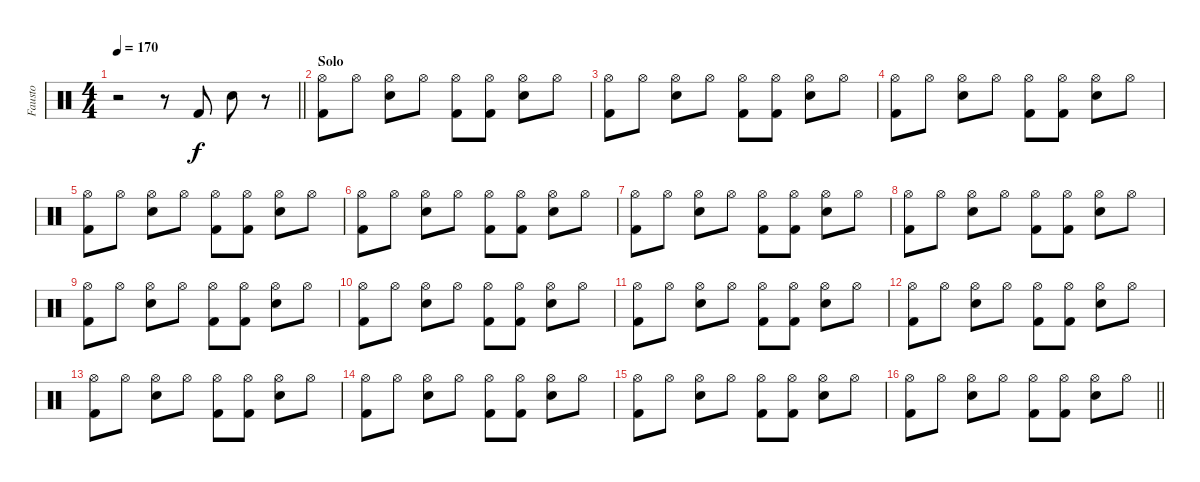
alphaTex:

\track ("Fausto" "Fausto") {instrument percussion}
\staff {score}
\articulation defaults
\ts (4 4)
\tempo 170
\clef neutral
\barLineRight lightlight
\ks c
r.2{dy f} r.8 "Kick (hit) 2".8 "Snare (hit) 2".8 r.8 |
\section ("" "Solo")
("Hi-Hat (open)" "Kick (hit) 2").8 "Hi-Hat (open)".8 ("Hi-Hat (open)" "Snare (hit) 2").8 "Hi-Hat (open)".8 ("Hi-Hat (open)" "Kick (hit) 2").8 ("Hi-Hat (open)" "Kick (hit) 2").8 ("Hi-Hat (open)" "Snare (hit) 2").8 "Hi-Hat (open)".8 |
("Hi-Hat (open)" "Kick (hit) 2").8 "Hi-Hat (open)".8 ("Hi-Hat (open)" "Snare (hit) 2").8 "Hi-Hat (open)".8 ("Hi-Hat (open)" "Kick (hit) 2").8 ("Hi-Hat (open)" "Kick (hit) 2").8 ("Hi-Hat (open)" "Snare (hit) 2").8 "Hi-Hat (open)".8 |
("Hi-Hat (open)" "Kick (hit) 2").8 "Hi-Hat (open)".8 ("Hi-Hat (open)" "Snare (hit) 2").8 "Hi-Hat (open)".8 ("Hi-Hat (open)" "Kick (hit) 2").8 ("Hi-Hat (open)" "Kick (hit) 2").8 ("Hi-Hat (open)" "Snare (hit) 2").8 "Hi-Hat (open)".8 |
("Hi-Hat (open)" "Kick (hit) 2").8 "Hi-Hat (open)".8 ("Hi-Hat (open)" "Snare (hit) 2").8 "Hi-Hat (open)".8 ("Hi-Hat (open)" "Kick (hit) 2").8 ("Hi-Hat (open)" "Kick (hit) 2").8 ("Hi-Hat (open)" "Snare (hit) 2").8 "Hi-Hat (open)".8 |
("Hi-Hat (open)" "Kick (hit) 2").8 "Hi-Hat (open)".8 ("Hi-Hat (open)" "Snare (hit) 2").8 "Hi-Hat (open)".8 ("Hi-Hat (open)" "Kick (hit) 2").8 ("Hi-Hat (open)" "Kick (hit) 2").8 ("Hi-Hat (open)" "Snare (hit) 2").8 "Hi-Hat (open)".8 |
("Hi-Hat (open)" "Kick (hit) 2").8 "Hi-Hat (open)".8 ("Hi-Hat (open)" "Snare (hit) 2").8 "Hi-Hat (open)".8 ("Hi-Hat (open)" "Kick (hit) 2").8 ("Hi-Hat (open)" "Kick (hit) 2").8 ("Hi-Hat (open)" "Snare (hit) 2").8 "Hi-Hat (open)".8 |
("Hi-Hat (open)" "Kick (hit) 2").8 "Hi-Hat (open)".8 ("Hi-Hat (open)" "Snare (hit) 2").8 "Hi-Hat (open)".8 ("Hi-Hat (open)" "Kick (hit) 2").8 ("Hi-Hat (open)" "Kick (hit) 2").8 ("Hi-Hat (open)" "Snare (hit) 2").8 "Hi-Hat (open)".8 |
("Hi-Hat (open)" "Kick (hit) 2").8 "Hi-Hat (open)".8 ("Hi-Hat (open)" "Snare (hit) 2").8 "Hi-Hat (open)".8 ("Hi-Hat (open)" "Kick (hit) 2").8 ("Hi-Hat (open)" "Kick (hit) 2").8 ("Hi-Hat (open)" "Snare (hit) 2").8 "Hi-Hat (open)".8 |
("Hi-Hat (open)" "Kick (hit) 2").8 "Hi-Hat (open)".8 ("Hi-Hat (open)" "Snare (hit) 2").8 "Hi-Hat (open)".8 ("Hi-Hat (open)" "Kick (hit) 2").8 ("Hi-Hat (open)" "Kick (hit) 2").8 ("Hi-Hat (open)" "Snare (hit) 2").8 "Hi-Hat (open)".8 |
("Hi-Hat (open)" "Kick (hit) 2").8 "Hi-Hat (open)".8 ("Hi-Hat (open)" "Snare (hit) 2").8 "Hi-Hat (open)".8 ("Hi-Hat (open)" "Kick (hit) 2").8 ("Hi-Hat (open)" "Kick (hit) 2").8 ("Hi-Hat (open)" "Snare (hit) 2").8 "Hi-Hat (open)".8 |
("Hi-Hat (open)" "Kick (hit) 2").8 "Hi-Hat (open)".8 ("Hi-Hat (open)" "Snare (hit) 2").8 "Hi-Hat (open)".8 ("Hi-Hat (open)" "Kick (hit) 2").8 ("Hi-Hat (open)" "Kick (hit) 2").8 ("Hi-Hat (open)" "Snare (hit) 2").8 "Hi-Hat (open)".8 |
("Hi-Hat (open)" "Kick (hit) 2").8 "Hi-Hat (open)".8 ("Hi-Hat (open)" "Snare (hit) 2").8 "Hi-Hat (open)".8 ("Hi-Hat (open)" "Kick (hit) 2").8 ("Hi-Hat (open)" "Kick (hit) 2").8 ("Hi-Hat (open)" "Snare (hit) 2").8 "Hi-Hat (open)".8 |
("Hi-Hat (open)" "Kick (hit) 2").8 "Hi-Hat (open)".8 ("Hi-Hat (open)" "Snare (hit) 2").8 "Hi-Hat (open)".8 ("Hi-Hat (open)" "Kick (hit) 2").8 ("Hi-Hat (open)" "Kick (hit) 2").8 ("Hi-Hat (open)" "Snare (hit) 2").8 "Hi-Hat (open)".8 |
("Hi-Hat (open)" "Kick (hit) 2").8 "Hi-Hat (open)".8 ("Hi-Hat (open)" "Snare (hit) 2").8 "Hi-Hat (open)".8 ("Hi-Hat (open)" "Kick (hit) 2").8 ("Hi-Hat (open)" "Kick (hit) 2").8 ("Hi-Hat (open)" "Snare (hit) 2").8 "Hi-Hat (open)".8 |
\barLineRight lightlight
("Hi-Hat (open)" "Kick (hit) 2").8 "Hi-Hat (open)".8 ("Hi-Hat (open)" "Snare (hit) 2").8 "Hi-Hat (open)".8 ("Hi-Hat (open)" "Kick (hit) 2").8 ("Hi-Hat (open)" "Kick (hit) 2").8 ("Hi-Hat (open)" "Snare (hit) 2").8 "Hi-Hat (open)".8
